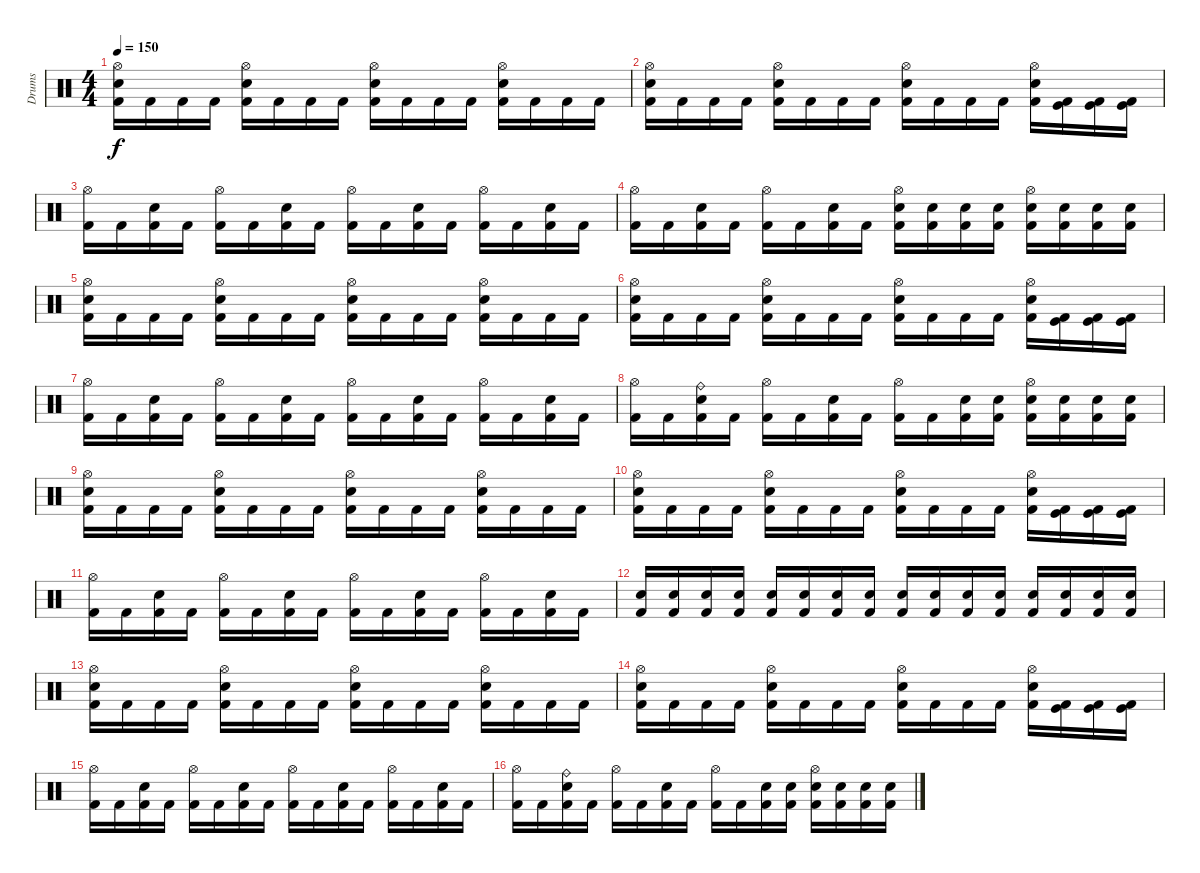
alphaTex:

\track ("Drums" "Drums") {instrument percussion}
\staff {score}
\articulation defaults
\ts (4 4)
\tempo 150
\clef neutral
\ks c
("Hi-Hat (open)" "Electric Snare (hit)" "Kick (hit) 2").16{dy f} "Kick (hit) 2".16 "Kick (hit) 2".16 "Kick (hit) 2".16 ("Hi-Hat (open)" "Electric Snare (hit)" "Kick (hit) 2").16 "Kick (hit) 2".16 "Kick (hit) 2".16 "Kick (hit) 2".16 ("Hi-Hat (open)" "Electric Snare (hit)" "Kick (hit) 2").16 "Kick (hit) 2".16 "Kick (hit) 2".16 "Kick (hit) 2".16 ("Hi-Hat (open)" "Electric Snare (hit)" "Kick (hit) 2").16 "Kick (hit) 2".16 "Kick (hit) 2".16 "Kick (hit) 2".16 |
("Hi-Hat (open)" "Electric Snare (hit)" "Kick (hit) 2").16 "Kick (hit) 2".16 "Kick (hit) 2".16 "Kick (hit) 2".16 ("Hi-Hat (open)" "Electric Snare (hit)" "Kick (hit) 2").16 "Kick (hit) 2".16 "Kick (hit) 2".16 "Kick (hit) 2".16 ("Hi-Hat (open)" "Electric Snare (hit)" "Kick (hit) 2").16 "Kick (hit) 2".16 "Kick (hit) 2".16 "Kick (hit) 2".16 ("Hi-Hat (open)" "Electric Snare (hit)" "Kick (hit) 2").16 ("Kick (hit)" "Kick (hit) 2").16 ("Kick (hit)" "Kick (hit) 2").16 ("Kick (hit)" "Kick (hit) 2").16 |
("Hi-Hat (open)" "Kick (hit) 2").16 "Kick (hit) 2".16 ("Electric Snare (hit)" "Kick (hit) 2").16 "Kick (hit) 2".16 ("Hi-Hat (open)" "Kick (hit) 2").16 "Kick (hit) 2".16 ("Electric Snare (hit)" "Kick (hit) 2").16 "Kick (hit) 2".16 ("Hi-Hat (open)" "Kick (hit) 2").16 "Kick (hit) 2".16 ("Electric Snare (hit)" "Kick (hit) 2").16 "Kick (hit) 2".16 ("Hi-Hat (open)" "Kick (hit) 2").16 "Kick (hit) 2".16 ("Electric Snare (hit)" "Kick (hit) 2").16 "Kick (hit) 2".16 |
("Hi-Hat (open)" "Kick (hit) 2").16 "Kick (hit) 2".16 ("Electric Snare (hit)" "Kick (hit) 2").16 "Kick (hit) 2".16 ("Hi-Hat (open)" "Kick (hit) 2").16 "Kick (hit) 2".16 ("Electric Snare (hit)" "Kick (hit) 2").16 "Kick (hit) 2".16 ("Hi-Hat (open)" "Snare (hit) 2" "Kick (hit) 2").16 ("Snare (hit) 2" "Kick (hit) 2").16 ("Snare (hit) 2" "Kick (hit) 2").16 ("Snare (hit) 2" "Kick (hit) 2").16 ("Hi-Hat (open)" "Snare (hit) 2" "Kick (hit) 2").16 ("Snare (hit) 2" "Kick (hit) 2").16 ("Snare (hit) 2" "Kick (hit) 2").16 ("Snare (hit) 2" "Kick (hit) 2").16 |
("Hi-Hat (open)" "Electric Snare (hit)" "Kick (hit) 2").16 "Kick (hit) 2".16 "Kick (hit) 2".16 "Kick (hit) 2".16 ("Hi-Hat (open)" "Electric Snare (hit)" "Kick (hit) 2").16 "Kick (hit) 2".16 "Kick (hit) 2".16 "Kick (hit) 2".16 ("Hi-Hat (open)" "Electric Snare (hit)" "Kick (hit) 2").16 "Kick (hit) 2".16 "Kick (hit) 2".16 "Kick (hit) 2".16 ("Hi-Hat (open)" "Electric Snare (hit)" "Kick (hit) 2").16 "Kick (hit) 2".16 "Kick (hit) 2".16 "Kick (hit) 2".16 |
("Hi-Hat (open)" "Electric Snare (hit)" "Kick (hit) 2").16 "Kick (hit) 2".16 "Kick (hit) 2".16 "Kick (hit) 2".16 ("Hi-Hat (open)" "Electric Snare (hit)" "Kick (hit) 2").16 "Kick (hit) 2".16 "Kick (hit) 2".16 "Kick (hit) 2".16 ("Hi-Hat (open)" "Electric Snare (hit)" "Kick (hit) 2").16 "Kick (hit) 2".16 "Kick (hit) 2".16 "Kick (hit) 2".16 ("Hi-Hat (open)" "Electric Snare (hit)" "Kick (hit) 2").16 ("Kick (hit)" "Kick (hit) 2").16 ("Kick (hit)" "Kick (hit) 2").16 ("Kick (hit)" "Kick (hit) 2").16 |
("Hi-Hat (open)" "Kick (hit) 2").16 "Kick (hit) 2".16 ("Electric Snare (hit)" "Kick (hit) 2").16 "Kick (hit) 2".16 ("Hi-Hat (open)" "Kick (hit) 2").16 "Kick (hit) 2".16 ("Electric Snare (hit)" "Kick (hit) 2").16 "Kick (hit) 2".16 ("Hi-Hat (open)" "Kick (hit) 2").16 "Kick (hit) 2".16 ("Electric Snare (hit)" "Kick (hit) 2").16 "Kick (hit) 2".16 ("Hi-Hat (open)" "Kick (hit) 2").16 "Kick (hit) 2".16 ("Electric Snare (hit)" "Kick (hit) 2").16 "Kick (hit) 2".16 |
("Hi-Hat (open)" "Kick (hit) 2").16 "Kick (hit) 2".16 ("Ride (bell)" "Electric Snare (hit)" "Kick (hit) 2").16 "Kick (hit) 2".16 ("Hi-Hat (open)" "Kick (hit) 2").16 "Kick (hit) 2".16 ("Electric Snare (hit)" "Kick (hit) 2").16 "Kick (hit) 2".16 ("Hi-Hat (open)" "Kick (hit) 2").16 "Kick (hit) 2".16 ("Snare (hit) 2" "Kick (hit) 2").16 ("Snare (hit) 2" "Kick (hit) 2").16 ("Hi-Hat (open)" "Snare (hit) 2" "Kick (hit) 2").16 ("Snare (hit) 2" "Kick (hit) 2").16 ("Snare (hit) 2" "Kick (hit) 2").16 ("Snare (hit) 2" "Kick (hit) 2").16 |
("Hi-Hat (open)" "Electric Snare (hit)" "Kick (hit) 2").16 "Kick (hit) 2".16 "Kick (hit) 2".16 "Kick (hit) 2".16 ("Hi-Hat (open)" "Electric Snare (hit)" "Kick (hit) 2").16 "Kick (hit) 2".16 "Kick (hit) 2".16 "Kick (hit) 2".16 ("Hi-Hat (open)" "Electric Snare (hit)" "Kick (hit) 2").16 "Kick (hit) 2".16 "Kick (hit) 2".16 "Kick (hit) 2".16 ("Hi-Hat (open)" "Electric Snare (hit)" "Kick (hit) 2").16 "Kick (hit) 2".16 "Kick (hit) 2".16 "Kick (hit) 2".16 |
("Hi-Hat (open)" "Electric Snare (hit)" "Kick (hit) 2").16 "Kick (hit) 2".16 "Kick (hit) 2".16 "Kick (hit) 2".16 ("Hi-Hat (open)" "Electric Snare (hit)" "Kick (hit) 2").16 "Kick (hit) 2".16 "Kick (hit) 2".16 "Kick (hit) 2".16 ("Hi-Hat (open)" "Electric Snare (hit)" "Kick (hit) 2").16 "Kick (hit) 2".16 "Kick (hit) 2".16 "Kick (hit) 2".16 ("Hi-Hat (open)" "Electric Snare (hit)" "Kick (hit) 2").16 ("Kick (hit)" "Kick (hit) 2").16 ("Kick (hit)" "Kick (hit) 2").16 ("Kick (hit)" "Kick (hit) 2").16 |
("Hi-Hat (open)" "Kick (hit) 2").16 "Kick (hit) 2".16 ("Electric Snare (hit)" "Kick (hit) 2").16 "Kick (hit) 2".16 ("Hi-Hat (open)" "Kick (hit) 2").16 "Kick (hit) 2".16 ("Electric Snare (hit)" "Kick (hit) 2").16 "Kick (hit) 2".16 ("Hi-Hat (open)" "Kick (hit) 2").16 "Kick (hit) 2".16 ("Electric Snare (hit)" "Kick (hit) 2").16 "Kick (hit) 2".16 ("Hi-Hat (open)" "Kick (hit) 2").16 "Kick (hit) 2".16 ("Electric Snare (hit)" "Kick (hit) 2").16 "Kick (hit) 2".16 |
("Snare (hit) 2" "Kick (hit) 2").16 ("Snare (hit) 2" "Kick (hit) 2").16 ("Snare (hit) 2" "Kick (hit) 2").16 ("Snare (hit) 2" "Kick (hit) 2").16 ("Snare (hit) 2" "Kick (hit) 2").16 ("Snare (hit) 2" "Kick (hit) 2").16 ("Snare (hit) 2" "Kick (hit) 2").16 ("Snare (hit) 2" "Kick (hit) 2").16 ("Snare (hit) 2" "Kick (hit) 2").16 ("Snare (hit) 2" "Kick (hit) 2").16 ("Snare (hit) 2" "Kick (hit) 2").16 ("Snare (hit) 2" "Kick (hit) 2").16 ("Snare (hit) 2" "Kick (hit) 2").16 ("Snare (hit) 2" "Kick (hit) 2").16 ("Snare (hit) 2" "Kick (hit) 2").16 ("Snare (hit) 2" "Kick (hit) 2").16 |
("Hi-Hat (open)" "Electric Snare (hit)" "Kick (hit) 2").16 "Kick (hit) 2".16 "Kick (hit) 2".16 "Kick (hit) 2".16 ("Hi-Hat (open)" "Electric Snare (hit)" "Kick (hit) 2").16 "Kick (hit) 2".16 "Kick (hit) 2".16 "Kick (hit) 2".16 ("Hi-Hat (open)" "Electric Snare (hit)" "Kick (hit) 2").16 "Kick (hit) 2".16 "Kick (hit) 2".16 "Kick (hit) 2".16 ("Hi-Hat (open)" "Electric Snare (hit)" "Kick (hit) 2").16 "Kick (hit) 2".16 "Kick (hit) 2".16 "Kick (hit) 2".16 |
("Hi-Hat (open)" "Electric Snare (hit)" "Kick (hit) 2").16 "Kick (hit) 2".16 "Kick (hit) 2".16 "Kick (hit) 2".16 ("Hi-Hat (open)" "Electric Snare (hit)" "Kick (hit) 2").16 "Kick (hit) 2".16 "Kick (hit) 2".16 "Kick (hit) 2".16 ("Hi-Hat (open)" "Electric Snare (hit)" "Kick (hit) 2").16 "Kick (hit) 2".16 "Kick (hit) 2".16 "Kick (hit) 2".16 ("Hi-Hat (open)" "Electric Snare (hit)" "Kick (hit) 2").16 ("Kick (hit)" "Kick (hit) 2").16 ("Kick (hit)" "Kick (hit) 2").16 ("Kick (hit)" "Kick (hit) 2").16 |
("Hi-Hat (open)" "Kick (hit) 2").16 "Kick (hit) 2".16 ("Electric Snare (hit)" "Kick (hit) 2").16 "Kick (hit) 2".16 ("Hi-Hat (open)" "Kick (hit) 2").16 "Kick (hit) 2".16 ("Electric Snare (hit)" "Kick (hit) 2").16 "Kick (hit) 2".16 ("Hi-Hat (open)" "Kick (hit) 2").16 "Kick (hit) 2".16 ("Electric Snare (hit)" "Kick (hit) 2").16 "Kick (hit) 2".16 ("Hi-Hat (open)" "Kick (hit) 2").16 "Kick (hit) 2".16 ("Electric Snare (hit)" "Kick (hit) 2").16 "Kick (hit) 2".16 |
("Hi-Hat (open)" "Kick (hit) 2").16 "Kick (hit) 2".16 ("Ride (bell)" "Electric Snare (hit)" "Kick (hit) 2").16 "Kick (hit) 2".16 ("Hi-Hat (open)" "Kick (hit) 2").16 "Kick (hit) 2".16 ("Electric Snare (hit)" "Kick (hit) 2").16 "Kick (hit) 2".16 ("Hi-Hat (open)" "Kick (hit) 2").16 "Kick (hit) 2".16 ("Snare (hit) 2" "Kick (hit) 2").16 ("Snare (hit) 2" "Kick (hit) 2").16 ("Hi-Hat (open)" "Snare (hit) 2" "Kick (hit) 2").16 ("Snare (hit) 2" "Kick (hit) 2").16 ("Snare (hit) 2" "Kick (hit) 2").16 ("Snare (hit) 2" "Kick (hit) 2").16
